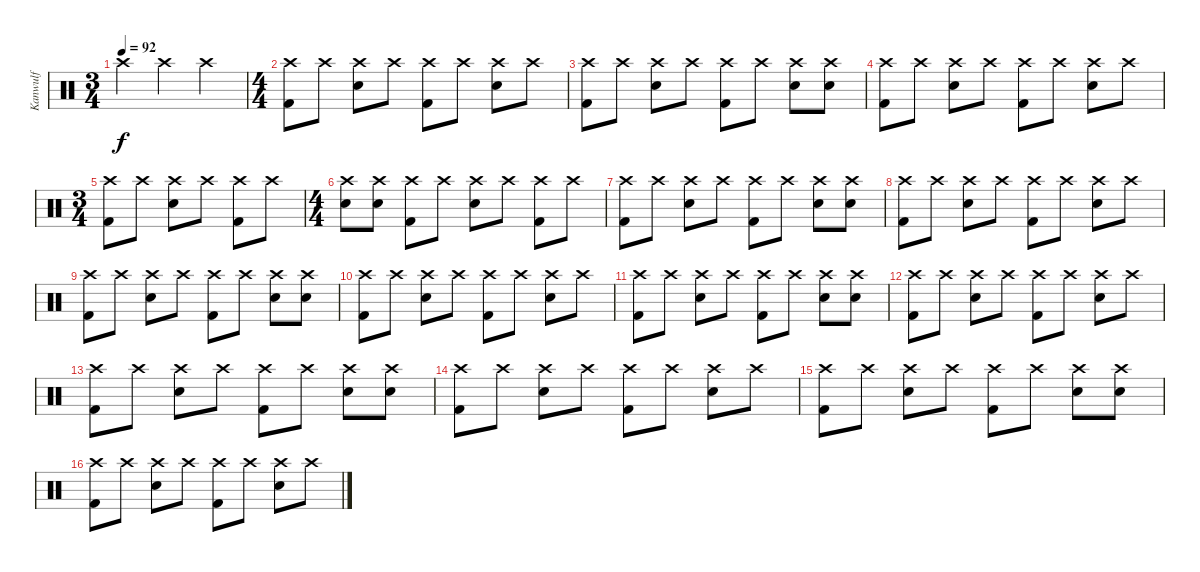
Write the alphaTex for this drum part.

\track ("Kanwulf" "Kanwulf") {instrument percussion}
\staff {score}
\articulation defaults
\ts (3 4)
\tempo 92
\clef neutral
\ks c "Crash high (hit)".4{dy f} "Crash high (hit)".4 "Crash high (hit)".4
|
\ts (4 4)
("Crash high (hit)" "Kick (hit) 2").8 "Crash high (hit)".8 ("Crash high (hit)" "Electric Snare (hit)").8 "Crash high (hit)".8 ("Crash high (hit)" "Kick (hit) 2").8 "Crash high (hit)".8 ("Crash high (hit)" "Electric Snare (hit)").8 "Crash high (hit)".8 |
("Crash high (hit)" "Kick (hit) 2").8 "Crash high (hit)".8 ("Crash high (hit)" "Electric Snare (hit)").8 "Crash high (hit)".8 ("Crash high (hit)" "Kick (hit) 2").8 "Crash high (hit)".8 ("Crash high (hit)" "Electric Snare (hit)").8 ("Crash high (hit)" "Electric Snare (hit)").8 |
("Crash high (hit)" "Kick (hit) 2").8 "Crash high (hit)".8 ("Crash high (hit)" "Electric Snare (hit)").8 "Crash high (hit)".8 ("Crash high (hit)" "Kick (hit) 2").8 "Crash high (hit)".8 ("Crash high (hit)" "Electric Snare (hit)").8 "Crash high (hit)".8 |
\ts (3 4)
("Crash high (hit)" "Kick (hit) 2").8 "Crash high (hit)".8 ("Crash high (hit)" "Electric Snare (hit)").8 "Crash high (hit)".8 ("Crash high (hit)" "Kick (hit) 2").8 "Crash high (hit)".8 |
\ts (4 4)
("Crash high (hit)" "Electric Snare (hit)").8 ("Crash high (hit)" "Electric Snare (hit)").8 ("Crash high (hit)" "Kick (hit) 2").8 "Crash high (hit)".8 ("Crash high (hit)" "Electric Snare (hit)").8 "Crash high (hit)".8 ("Crash high (hit)" "Kick (hit) 2").8 "Crash high (hit)".8 |
("Crash high (hit)" "Kick (hit) 2").8 "Crash high (hit)".8 ("Crash high (hit)" "Electric Snare (hit)").8 "Crash high (hit)".8 ("Crash high (hit)" "Kick (hit) 2").8 "Crash high (hit)".8 ("Crash high (hit)" "Electric Snare (hit)").8 ("Crash high (hit)" "Electric Snare (hit)").8 |
("Crash high (hit)" "Kick (hit) 2").8 "Crash high (hit)".8 ("Crash high (hit)" "Electric Snare (hit)").8 "Crash high (hit)".8 ("Crash high (hit)" "Kick (hit) 2").8 "Crash high (hit)".8 ("Crash high (hit)" "Electric Snare (hit)").8 "Crash high (hit)".8 |
("Crash high (hit)" "Kick (hit) 2").8 "Crash high (hit)".8 ("Crash high (hit)" "Electric Snare (hit)").8 "Crash high (hit)".8 ("Crash high (hit)" "Kick (hit) 2").8 "Crash high (hit)".8 ("Crash high (hit)" "Electric Snare (hit)").8 ("Crash high (hit)" "Electric Snare (hit)").8 |
("Crash high (hit)" "Kick (hit) 2").8 "Crash high (hit)".8 ("Crash high (hit)" "Electric Snare (hit)").8 "Crash high (hit)".8 ("Crash high (hit)" "Kick (hit) 2").8 "Crash high (hit)".8 ("Crash high (hit)" "Electric Snare (hit)").8 "Crash high (hit)".8 |
("Crash high (hit)" "Kick (hit) 2").8 "Crash high (hit)".8 ("Crash high (hit)" "Electric Snare (hit)").8 "Crash high (hit)".8 ("Crash high (hit)" "Kick (hit) 2").8 "Crash high (hit)".8 ("Crash high (hit)" "Electric Snare (hit)").8 ("Crash high (hit)" "Electric Snare (hit)").8 |
("Crash high (hit)" "Kick (hit) 2").8 "Crash high (hit)".8 ("Crash high (hit)" "Electric Snare (hit)").8 "Crash high (hit)".8 ("Crash high (hit)" "Kick (hit) 2").8 "Crash high (hit)".8 ("Crash high (hit)" "Electric Snare (hit)").8 "Crash high (hit)".8 |
("Crash high (hit)" "Kick (hit) 2").8 "Crash high (hit)".8 ("Crash high (hit)" "Electric Snare (hit)").8 "Crash high (hit)".8 ("Crash high (hit)" "Kick (hit) 2").8 "Crash high (hit)".8 ("Crash high (hit)" "Electric Snare (hit)").8 ("Crash high (hit)" "Electric Snare (hit)").8 |
("Crash high (hit)" "Kick (hit) 2").8 "Crash high (hit)".8 ("Crash high (hit)" "Electric Snare (hit)").8 "Crash high (hit)".8 ("Crash high (hit)" "Kick (hit) 2").8 "Crash high (hit)".8 ("Crash high (hit)" "Electric Snare (hit)").8 "Crash high (hit)".8 |
("Crash high (hit)" "Kick (hit) 2").8 "Crash high (hit)".8 ("Crash high (hit)" "Electric Snare (hit)").8 "Crash high (hit)".8 ("Crash high (hit)" "Kick (hit) 2").8 "Crash high (hit)".8 ("Crash high (hit)" "Electric Snare (hit)").8 ("Crash high (hit)" "Electric Snare (hit)").8 |
("Crash high (hit)" "Kick (hit) 2").8 "Crash high (hit)".8 ("Crash high (hit)" "Electric Snare (hit)").8 "Crash high (hit)".8 ("Crash high (hit)" "Kick (hit) 2").8 "Crash high (hit)".8 ("Crash high (hit)" "Electric Snare (hit)").8 "Crash high (hit)".8
